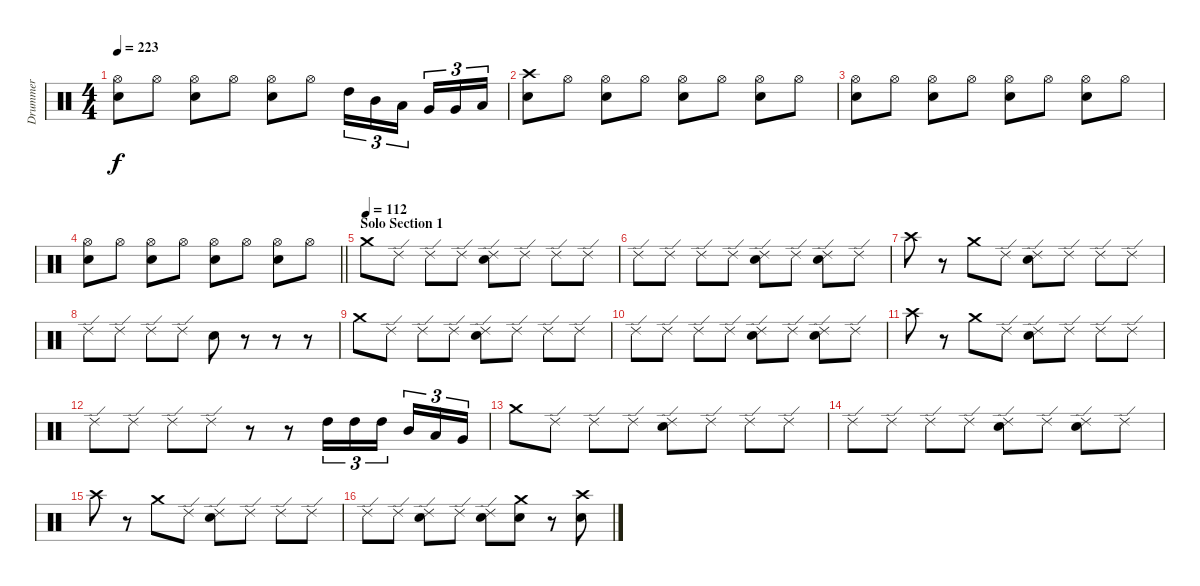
\track ("Drummer" "Drummer") {instrument percussion}
\staff {score}
\articulation defaults
\ts (4 4)
\tempo 223
\clef neutral
\ks c
("Hi-Hat (open)" "Electric Snare (hit)").8{dy f} "Hi-Hat (open)".8 ("Hi-Hat (open)" "Electric Snare (hit)").8 "Hi-Hat (open)".8 ("Hi-Hat (open)" "Electric Snare (hit)").8 "Hi-Hat (open)".8 "High Tom (hit)".16{tu (3 2)} "Mid Tom (hit)".16{tu (3 2)} "Low Tom (hit)".16{tu (3 2) beam splitsecondary} "Very Low Tom (hit)".16{tu (3 2)} "Very Low Tom (hit)".16{tu (3 2)} "Low Floor Tom (hit)".16{tu (3 2)} |
("Crash high (hit)" "Electric Snare (hit)").8 "Hi-Hat (open)".8 ("Hi-Hat (open)" "Electric Snare (hit)").8 "Hi-Hat (open)".8 ("Hi-Hat (open)" "Electric Snare (hit)").8 "Hi-Hat (open)".8 ("Hi-Hat (open)" "Electric Snare (hit)").8 "Hi-Hat (open)".8 |
("Hi-Hat (open)" "Electric Snare (hit)").8 "Hi-Hat (open)".8 ("Hi-Hat (open)" "Electric Snare (hit)").8 "Hi-Hat (open)".8 ("Hi-Hat (open)" "Electric Snare (hit)").8 "Hi-Hat (open)".8 ("Hi-Hat (open)" "Electric Snare (hit)").8 "Hi-Hat (open)".8 |
\barLineRight lightlight
("Hi-Hat (open)" "Electric Snare (hit)").8 "Hi-Hat (open)".8 ("Hi-Hat (open)" "Electric Snare (hit)").8 "Hi-Hat (open)".8 ("Hi-Hat (open)" "Electric Snare (hit)").8 "Hi-Hat (open)".8 ("Hi-Hat (open)" "Electric Snare (hit)").8 "Hi-Hat (open)".8 |
\section ("" "Solo Section 1")
\tempo (112)
"Crash medium (hit)".8 "Ride (edge) 2".8 "Ride (edge) 2".8 "Ride (edge) 2".8 ("Ride (edge) 2" "Electric Snare (hit)").8 "Ride (edge) 2".8 "Ride (edge) 2".8 "Ride (edge) 2".8 |
"Ride (edge) 2".8 "Ride (edge) 2".8 "Ride (edge) 2".8 "Ride (edge) 2".8 ("Ride (edge) 2" "Electric Snare (hit)").8 "Ride (edge) 2".8 ("Ride (edge) 2" "Electric Snare (hit)").8 "Ride (edge) 2".8 |
"Crash high (hit)".8 r.8 "Crash medium (hit)".8 "Ride (edge) 2".8 ("Ride (edge) 2" "Electric Snare (hit)").8 "Ride (edge) 2".8 "Ride (edge) 2".8 "Ride (edge) 2".8 |
"Ride (edge) 2".8 "Ride (edge) 2".8 "Ride (edge) 2".8 "Ride (edge) 2".8 "Electric Snare (hit)".8 r.8 r.8 r.8 |
"Crash medium (hit)".8 "Ride (edge) 2".8 "Ride (edge) 2".8 "Ride (edge) 2".8 ("Ride (edge) 2" "Electric Snare (hit)").8 "Ride (edge) 2".8 "Ride (edge) 2".8 "Ride (edge) 2".8 |
"Ride (edge) 2".8 "Ride (edge) 2".8 "Ride (edge) 2".8 "Ride (edge) 2".8 ("Ride (edge) 2" "Electric Snare (hit)").8 "Ride (edge) 2".8 ("Ride (edge) 2" "Electric Snare (hit)").8 "Ride (edge) 2".8 |
"Crash high (hit)".8 r.8 "Crash medium (hit)".8 "Ride (edge) 2".8 ("Ride (edge) 2" "Electric Snare (hit)").8 "Ride (edge) 2".8 "Ride (edge) 2".8 "Ride (edge) 2".8 |
"Ride (edge) 2".8 "Ride (edge) 2".8 "Ride (edge) 2".8 "Ride (edge) 2".8 r.8 r.8 "High Tom (hit)".16{tu (3 2)} "High Tom (hit)".16{tu (3 2)} "High Tom (hit)".16{tu (3 2) beam splitsecondary} "Mid Tom (hit)".16{tu (3 2)} "Low Tom (hit)".16{tu (3 2)} "Very Low Tom (hit)".16{tu (3 2)} |
"Crash medium (hit)".8 "Ride (edge) 2".8 "Ride (edge) 2".8 "Ride (edge) 2".8 ("Ride (edge) 2" "Electric Snare (hit)").8 "Ride (edge) 2".8 "Ride (edge) 2".8 "Ride (edge) 2".8 |
"Ride (edge) 2".8 "Ride (edge) 2".8 "Ride (edge) 2".8 "Ride (edge) 2".8 ("Ride (edge) 2" "Electric Snare (hit)").8 "Ride (edge) 2".8 ("Ride (edge) 2" "Electric Snare (hit)").8 "Ride (edge) 2".8 |
"Crash high (hit)".8 r.8 "Crash medium (hit)".8 "Ride (edge) 2".8 ("Ride (edge) 2" "Electric Snare (hit)").8 "Ride (edge) 2".8 "Ride (edge) 2".8 "Ride (edge) 2".8 |
"Ride (edge) 2".8 "Ride (edge) 2".8 ("Ride (edge) 2" "Electric Snare (hit)").8 "Ride (edge) 2".8 ("Ride (edge) 2" "Electric Snare (hit)").8 ("Crash medium (hit)" "Electric Snare (hit)").8 r.8 ("Crash high (hit)" "Electric Snare (hit)").8
